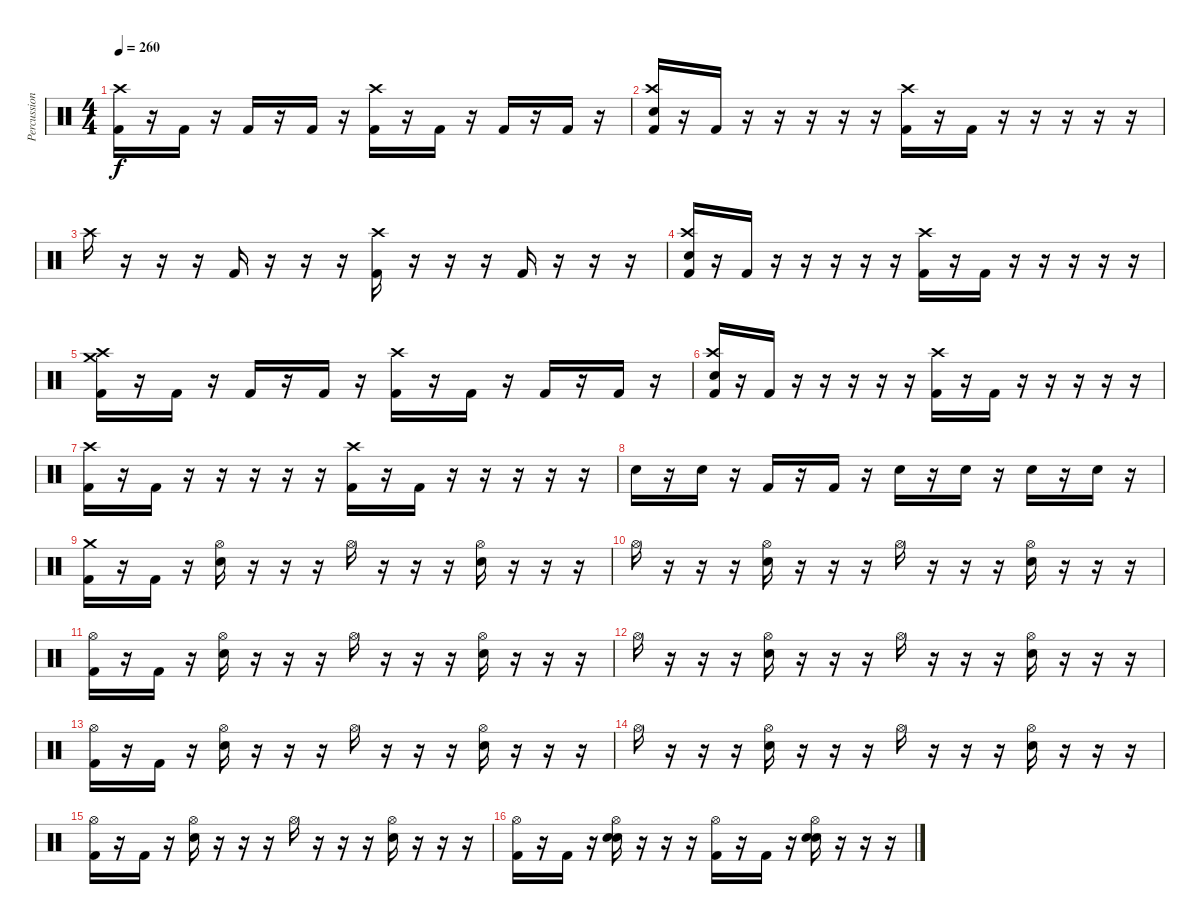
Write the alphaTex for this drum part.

\track ("Percussion" "Percussion") {instrument percussion}
\staff {score}
\articulation defaults
\ts (4 4)
\tempo 260
\clef neutral
\ks c
("Kick (hit) 2" "Crash high (hit)").16{dy f} r.16 "Kick (hit) 2".16 r.16 "Kick (hit) 2".16 r.16 "Kick (hit) 2".16 r.16 ("Kick (hit) 2" "Crash high (hit)").16 r.16 "Kick (hit) 2".16 r.16 "Kick (hit) 2".16 r.16 "Kick (hit) 2".16 r.16 |
("Kick (hit) 2" "Snare (hit) 2" "Crash high (hit)").16 r.16 "Kick (hit) 2".16 r.16 r.16 r.16 r.16 r.16 ("Kick (hit) 2" "Crash high (hit)").16 r.16 "Kick (hit) 2".16 r.16 r.16 r.16 r.16 r.16 |
"Crash high (hit)".16 r.16 r.16 r.16 "Kick (hit) 2".16 r.16 r.16 r.16 ("Kick (hit) 2" "Crash high (hit)").16 r.16 r.16 r.16 "Kick (hit) 2".16 r.16 r.16 r.16 |
("Kick (hit) 2" "Snare (hit) 2" "Crash high (hit)").16 r.16 "Kick (hit) 2".16 r.16 r.16 r.16 r.16 r.16 ("Kick (hit) 2" "Crash high (hit)").16 r.16 "Kick (hit) 2".16 r.16 r.16 r.16 r.16 r.16 |
("Kick (hit) 2" "Crash medium (hit)" "Crash high (hit)").16 r.16 "Kick (hit) 2".16 r.16 "Kick (hit) 2".16 r.16 "Kick (hit) 2".16 r.16 ("Kick (hit) 2" "Crash high (hit)").16 r.16 "Kick (hit) 2".16 r.16 "Kick (hit) 2".16 r.16 "Kick (hit) 2".16 r.16 |
("Kick (hit) 2" "Snare (hit) 2" "Crash high (hit)").16 r.16 "Kick (hit) 2".16 r.16 r.16 r.16 r.16 r.16 ("Kick (hit) 2" "Crash high (hit)").16 r.16 "Kick (hit) 2".16 r.16 r.16 r.16 r.16 r.16 |
("Kick (hit) 2" "Crash high (hit)").16 r.16 "Kick (hit) 2".16 r.16 r.16 r.16 r.16 r.16 ("Kick (hit) 2" "Crash high (hit)").16 r.16 "Kick (hit) 2".16 r.16 r.16 r.16 r.16 r.16 |
"Snare (hit) 2".16 r.16 "Snare (hit) 2".16 r.16 "Kick (hit) 2".16 r.16 "Kick (hit) 2".16 r.16 "Snare (hit) 2".16 r.16 "Snare (hit) 2".16 r.16 "Snare (hit) 2".16 r.16 "Snare (hit) 2".16 r.16 |
("Kick (hit) 2" "Crash medium (hit)").16 r.16 "Kick (hit) 2".16 r.16 ("Snare (hit) 2" "Hi-Hat (open)").16 r.16 r.16 r.16 "Hi-Hat (open)".16 r.16 r.16 r.16 ("Snare (hit) 2" "Hi-Hat (open)").16 r.16 r.16 r.16 |
"Hi-Hat (open)".16 r.16 r.16 r.16 ("Snare (hit) 2" "Hi-Hat (open)").16 r.16 r.16 r.16 "Hi-Hat (open)".16 r.16 r.16 r.16 ("Snare (hit) 2" "Hi-Hat (open)").16 r.16 r.16 r.16 |
("Kick (hit) 2" "Hi-Hat (open)").16 r.16 "Kick (hit) 2".16 r.16 ("Snare (hit) 2" "Hi-Hat (open)").16 r.16 r.16 r.16 "Hi-Hat (open)".16 r.16 r.16 r.16 ("Snare (hit) 2" "Hi-Hat (open)").16 r.16 r.16 r.16 |
"Hi-Hat (open)".16 r.16 r.16 r.16 ("Snare (hit) 2" "Hi-Hat (open)").16 r.16 r.16 r.16 "Hi-Hat (open)".16 r.16 r.16 r.16 ("Snare (hit) 2" "Hi-Hat (open)").16 r.16 r.16 r.16 |
("Kick (hit) 2" "Hi-Hat (open)").16 r.16 "Kick (hit) 2".16 r.16 ("Snare (hit) 2" "Hi-Hat (open)").16 r.16 r.16 r.16 "Hi-Hat (open)".16 r.16 r.16 r.16 ("Snare (hit) 2" "Hi-Hat (open)").16 r.16 r.16 r.16 |
"Hi-Hat (open)".16 r.16 r.16 r.16 ("Snare (hit) 2" "Hi-Hat (open)").16 r.16 r.16 r.16 "Hi-Hat (open)".16 r.16 r.16 r.16 ("Snare (hit) 2" "Hi-Hat (open)").16 r.16 r.16 r.16 |
("Kick (hit) 2" "Hi-Hat (open)").16 r.16 "Kick (hit) 2".16 r.16 ("Snare (hit) 2" "Hi-Hat (open)").16 r.16 r.16 r.16 "Hi-Hat (open)".16 r.16 r.16 r.16 ("Snare (hit) 2" "Hi-Hat (open)").16 r.16 r.16 r.16 |
("Kick (hit) 2" "Hi-Hat (open)").16 r.16 "Kick (hit) 2".16 r.16 ("Snare (hit) 2" "Hand Clap (hit)" "Hi-Hat (open)").16 r.16 r.16 r.16 ("Kick (hit) 2" "Hi-Hat (open)").16 r.16 "Kick (hit) 2".16 r.16 ("Snare (hit) 2" "Hand Clap (hit)" "Hi-Hat (open)").16 r.16 r.16 r.16
